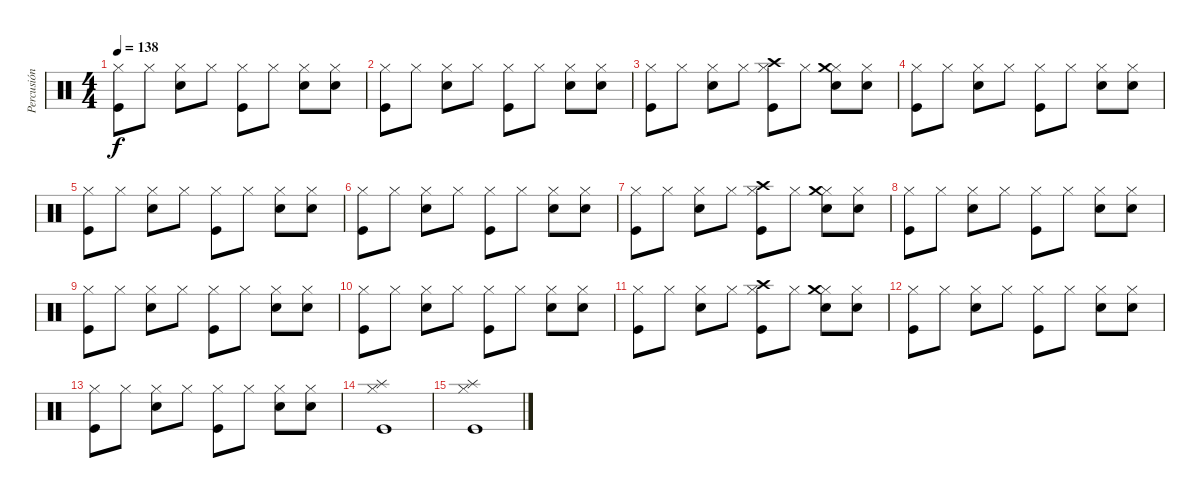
\track ("Percusión" "Percusión") {instrument percussion}
\staff {score}
\articulation defaults
\ts (4 4)
\tempo 138
\clef neutral
\ks c
("Hi-Hat (closed)" "Kick (hit)").8{dy f} "Hi-Hat (closed)".8 ("Hi-Hat (closed)" "Snare (hit) 2").8 "Hi-Hat (closed)".8 ("Hi-Hat (closed)" "Kick (hit)").8 "Hi-Hat (closed)".8 ("Hi-Hat (closed)" "Snare (hit) 2").8 ("Hi-Hat (closed)" "Snare (hit) 2").8 |
("Hi-Hat (closed)" "Kick (hit)").8 "Hi-Hat (closed)".8 ("Hi-Hat (closed)" "Snare (hit) 2").8 "Hi-Hat (closed)".8 ("Hi-Hat (closed)" "Kick (hit)").8 "Hi-Hat (closed)".8 ("Hi-Hat (closed)" "Snare (hit) 2").8 ("Hi-Hat (closed)" "Snare (hit) 2").8 |
("Hi-Hat (closed)" "Kick (hit)").8 "Hi-Hat (closed)".8 ("Hi-Hat (closed)" "Snare (hit) 2").8 "Hi-Hat (closed)".8 ("Hi-Hat (closed)" "Kick (hit)" "Crash high (hit)").8 "Hi-Hat (closed)".8 ("Hi-Hat (closed)" "Snare (hit) 2" "Crash medium (hit)").8 ("Hi-Hat (closed)" "Snare (hit) 2").8 |
("Hi-Hat (closed)" "Kick (hit)").8 "Hi-Hat (closed)".8 ("Hi-Hat (closed)" "Snare (hit) 2").8 "Hi-Hat (closed)".8 ("Hi-Hat (closed)" "Kick (hit)").8 "Hi-Hat (closed)".8 ("Hi-Hat (closed)" "Snare (hit) 2").8 ("Hi-Hat (closed)" "Snare (hit) 2").8 |
("Hi-Hat (closed)" "Kick (hit)").8 "Hi-Hat (closed)".8 ("Hi-Hat (closed)" "Snare (hit) 2").8 "Hi-Hat (closed)".8 ("Hi-Hat (closed)" "Kick (hit)").8 "Hi-Hat (closed)".8 ("Hi-Hat (closed)" "Snare (hit) 2").8 ("Hi-Hat (closed)" "Snare (hit) 2").8 |
("Hi-Hat (closed)" "Kick (hit)").8 "Hi-Hat (closed)".8 ("Hi-Hat (closed)" "Snare (hit) 2").8 "Hi-Hat (closed)".8 ("Hi-Hat (closed)" "Kick (hit)").8 "Hi-Hat (closed)".8 ("Hi-Hat (closed)" "Snare (hit) 2").8 ("Hi-Hat (closed)" "Snare (hit) 2").8 |
("Hi-Hat (closed)" "Kick (hit)").8 "Hi-Hat (closed)".8 ("Hi-Hat (closed)" "Snare (hit) 2").8 "Hi-Hat (closed)".8 ("Hi-Hat (closed)" "Kick (hit)" "Crash high (hit)").8 "Hi-Hat (closed)".8 ("Hi-Hat (closed)" "Snare (hit) 2" "Crash medium (hit)").8 ("Hi-Hat (closed)" "Snare (hit) 2").8 |
("Hi-Hat (closed)" "Kick (hit)").8 "Hi-Hat (closed)".8 ("Hi-Hat (closed)" "Snare (hit) 2").8 "Hi-Hat (closed)".8 ("Hi-Hat (closed)" "Kick (hit)").8 "Hi-Hat (closed)".8 ("Hi-Hat (closed)" "Snare (hit) 2").8 ("Hi-Hat (closed)" "Snare (hit) 2").8 |
("Hi-Hat (closed)" "Kick (hit)").8 "Hi-Hat (closed)".8 ("Hi-Hat (closed)" "Snare (hit) 2").8 "Hi-Hat (closed)".8 ("Hi-Hat (closed)" "Kick (hit)").8 "Hi-Hat (closed)".8 ("Hi-Hat (closed)" "Snare (hit) 2").8 ("Hi-Hat (closed)" "Snare (hit) 2").8 |
("Hi-Hat (closed)" "Kick (hit)").8 "Hi-Hat (closed)".8 ("Hi-Hat (closed)" "Snare (hit) 2").8 "Hi-Hat (closed)".8 ("Hi-Hat (closed)" "Kick (hit)").8 "Hi-Hat (closed)".8 ("Hi-Hat (closed)" "Snare (hit) 2").8 ("Hi-Hat (closed)" "Snare (hit) 2").8 |
("Hi-Hat (closed)" "Kick (hit)").8 "Hi-Hat (closed)".8 ("Hi-Hat (closed)" "Snare (hit) 2").8 "Hi-Hat (closed)".8 ("Hi-Hat (closed)" "Kick (hit)" "Crash high (hit)").8 "Hi-Hat (closed)".8 ("Hi-Hat (closed)" "Snare (hit) 2" "Crash medium (hit)").8 ("Hi-Hat (closed)" "Snare (hit) 2").8 |
("Hi-Hat (closed)" "Kick (hit)").8 "Hi-Hat (closed)".8 ("Hi-Hat (closed)" "Snare (hit) 2").8 "Hi-Hat (closed)".8 ("Hi-Hat (closed)" "Kick (hit)").8 "Hi-Hat (closed)".8 ("Hi-Hat (closed)" "Snare (hit) 2").8 ("Hi-Hat (closed)" "Snare (hit) 2").8 |
("Hi-Hat (closed)" "Kick (hit)").8 "Hi-Hat (closed)".8 ("Hi-Hat (closed)" "Snare (hit) 2").8 "Hi-Hat (closed)".8 ("Hi-Hat (closed)" "Kick (hit)").8 "Hi-Hat (closed)".8 ("Hi-Hat (closed)" "Snare (hit) 2").8 ("Hi-Hat (closed)" "Snare (hit) 2").8 |
("Hi-Hat (closed)" "Splash (hit)" "Kick (hit)").1 |
("Hi-Hat (closed)" "Splash (hit)" "Kick (hit)").1
